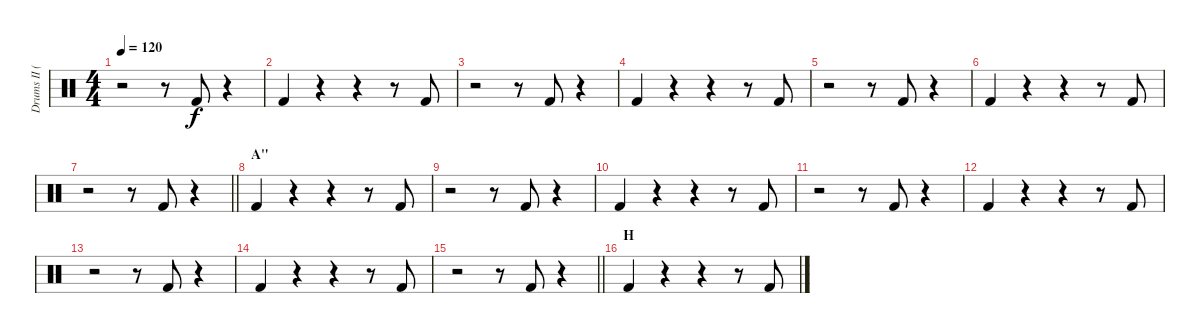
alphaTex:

\track ("Drums II (Ruka)" "Drums II (") {instrument percussion}
\staff {score}
\articulation defaults
\ts (4 4)
\tempo 120
\clef neutral
\ks c
r.2{dy f} r.8 "Kick (hit) 2".8 r.4 |
"Kick (hit) 2".4 r.4 r.4 r.8 "Kick (hit) 2".8 |
r.2 r.8 "Kick (hit) 2".8 r.4 |
"Kick (hit) 2".4 r.4 r.4 r.8 "Kick (hit) 2".8 |
r.2 r.8 "Kick (hit) 2".8 r.4 |
"Kick (hit) 2".4 r.4 r.4 r.8 "Kick (hit) 2".8 |
\barLineRight lightlight
r.2 r.8 "Kick (hit) 2".8 r.4 |
\section ("" "A''")
"Kick (hit) 2".4 r.4 r.4 r.8 "Kick (hit) 2".8 |
r.2 r.8 "Kick (hit) 2".8 r.4 |
"Kick (hit) 2".4 r.4 r.4 r.8 "Kick (hit) 2".8 |
r.2 r.8 "Kick (hit) 2".8 r.4 |
"Kick (hit) 2".4 r.4 r.4 r.8 "Kick (hit) 2".8 |
r.2 r.8 "Kick (hit) 2".8 r.4 |
"Kick (hit) 2".4 r.4 r.4 r.8 "Kick (hit) 2".8 |
\barLineRight lightlight
r.2 r.8 "Kick (hit) 2".8 r.4 |
\section ("" "H")
"Kick (hit) 2".4 r.4 r.4 r.8 "Kick (hit) 2".8
